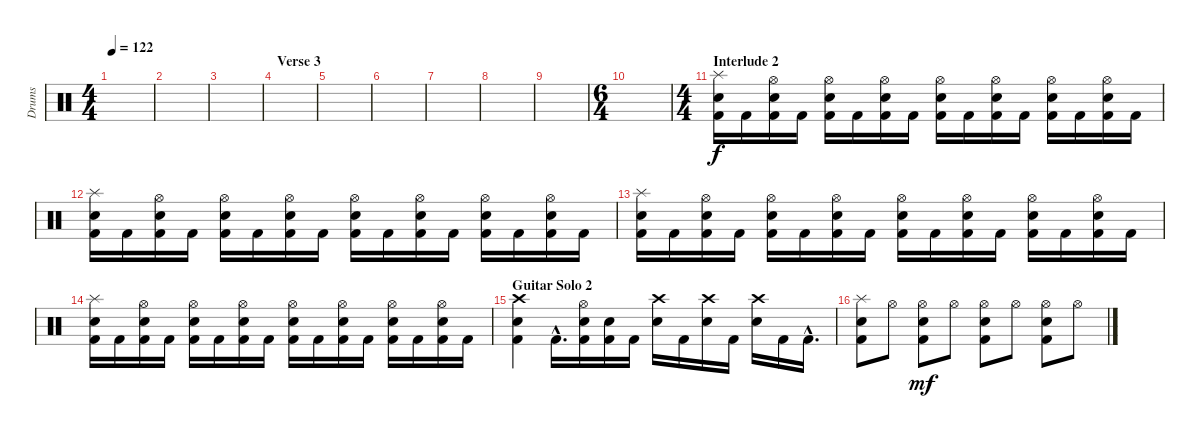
\track ("Drums" "Drums") {instrument percussion}
\staff {score}
\articulation defaults
\ts (4 4)
\tempo 122
\clef neutral
\ks c
|
|
|
\section ("" "Verse 3")
|
|
|
|
|
|
\ts (6 4)
|
\ts (4 4)
\section ("" "Interlude 2")
("Splash (hit)" "Snare (hit) 2" "Kick (hit) 2").16 "Kick (hit) 2".16 ("Hi-Hat (open)" "Snare (hit) 2" "Kick (hit) 2").16 "Kick (hit) 2".16 ("Hi-Hat (open)" "Snare (hit) 2" "Kick (hit) 2").16 "Kick (hit) 2".16 ("Hi-Hat (open)" "Snare (hit) 2" "Kick (hit) 2").16 "Kick (hit) 2".16 ("Hi-Hat (open)" "Snare (hit) 2" "Kick (hit) 2").16 "Kick (hit) 2".16 ("Hi-Hat (open)" "Snare (hit) 2" "Kick (hit) 2").16 "Kick (hit) 2".16 ("Hi-Hat (open)" "Snare (hit) 2" "Kick (hit) 2").16 "Kick (hit) 2".16 ("Hi-Hat (open)" "Snare (hit) 2" "Kick (hit) 2").16 "Kick (hit) 2".16 |
("Splash (hit)" "Snare (hit) 2" "Kick (hit) 2").16 "Kick (hit) 2".16 ("Hi-Hat (open)" "Snare (hit) 2" "Kick (hit) 2").16 "Kick (hit) 2".16 ("Hi-Hat (open)" "Snare (hit) 2" "Kick (hit) 2").16 "Kick (hit) 2".16 ("Hi-Hat (open)" "Snare (hit) 2" "Kick (hit) 2").16 "Kick (hit) 2".16 ("Hi-Hat (open)" "Snare (hit) 2" "Kick (hit) 2").16 "Kick (hit) 2".16 ("Hi-Hat (open)" "Snare (hit) 2" "Kick (hit) 2").16 "Kick (hit) 2".16 ("Hi-Hat (open)" "Snare (hit) 2" "Kick (hit) 2").16 "Kick (hit) 2".16 ("Hi-Hat (open)" "Snare (hit) 2" "Kick (hit) 2").16 "Kick (hit) 2".16 |
("Splash (hit)" "Snare (hit) 2" "Kick (hit) 2").16 "Kick (hit) 2".16 ("Hi-Hat (open)" "Snare (hit) 2" "Kick (hit) 2").16 "Kick (hit) 2".16 ("Hi-Hat (open)" "Snare (hit) 2" "Kick (hit) 2").16 "Kick (hit) 2".16 ("Hi-Hat (open)" "Snare (hit) 2" "Kick (hit) 2").16 "Kick (hit) 2".16 ("Hi-Hat (open)" "Snare (hit) 2" "Kick (hit) 2").16 "Kick (hit) 2".16 ("Hi-Hat (open)" "Snare (hit) 2" "Kick (hit) 2").16 "Kick (hit) 2".16 ("Hi-Hat (open)" "Snare (hit) 2" "Kick (hit) 2").16 "Kick (hit) 2".16 ("Hi-Hat (open)" "Snare (hit) 2" "Kick (hit) 2").16 "Kick (hit) 2".16 |
("Splash (hit)" "Snare (hit) 2" "Kick (hit) 2").16 "Kick (hit) 2".16 ("Hi-Hat (open)" "Snare (hit) 2" "Kick (hit) 2").16 "Kick (hit) 2".16 ("Hi-Hat (open)" "Snare (hit) 2" "Kick (hit) 2").16 "Kick (hit) 2".16 ("Hi-Hat (open)" "Snare (hit) 2" "Kick (hit) 2").16 "Kick (hit) 2".16 ("Hi-Hat (open)" "Snare (hit) 2" "Kick (hit) 2").16 "Kick (hit) 2".16 ("Hi-Hat (open)" "Snare (hit) 2" "Kick (hit) 2").16 "Kick (hit) 2".16 ("Hi-Hat (open)" "Snare (hit) 2" "Kick (hit) 2").16 "Kick (hit) 2".16 ("Hi-Hat (open)" "Snare (hit) 2" "Kick (hit) 2").16 "Kick (hit) 2".16 |
\section ("" "Guitar Solo 2")
("Crash high (hit)" "Snare (hit) 2" "Kick (hit) 2").4 "Kick (hit) 2"{hac}.16{d} ("Hi-Hat (open)" "Snare (hit) 2" "Kick (hit) 2").16 ("Snare (hit) 2" "Kick (hit) 2").16 "Kick (hit) 2".16 ("Crash high (hit)" "Snare (hit) 2").16 "Kick (hit) 2".16 ("Crash high (hit)" "Snare (hit) 2").16 "Kick (hit) 2".16 ("Crash high (hit)" "Snare (hit) 2").16 "Kick (hit) 2".16 "Kick (hit) 2"{hac}.16{d} |
("Splash (hit)" "Snare (hit) 2" "Kick (hit) 2").8 "Hi-Hat (open)".8 ("Hi-Hat (open)" "Snare (hit) 2" "Kick (hit) 2").8{dy mf} "Hi-Hat (open)".8 ("Hi-Hat (open)" "Snare (hit) 2" "Kick (hit) 2").8 "Hi-Hat (open)".8 ("Hi-Hat (open)" "Snare (hit) 2" "Kick (hit) 2").8 "Hi-Hat (open)".8
